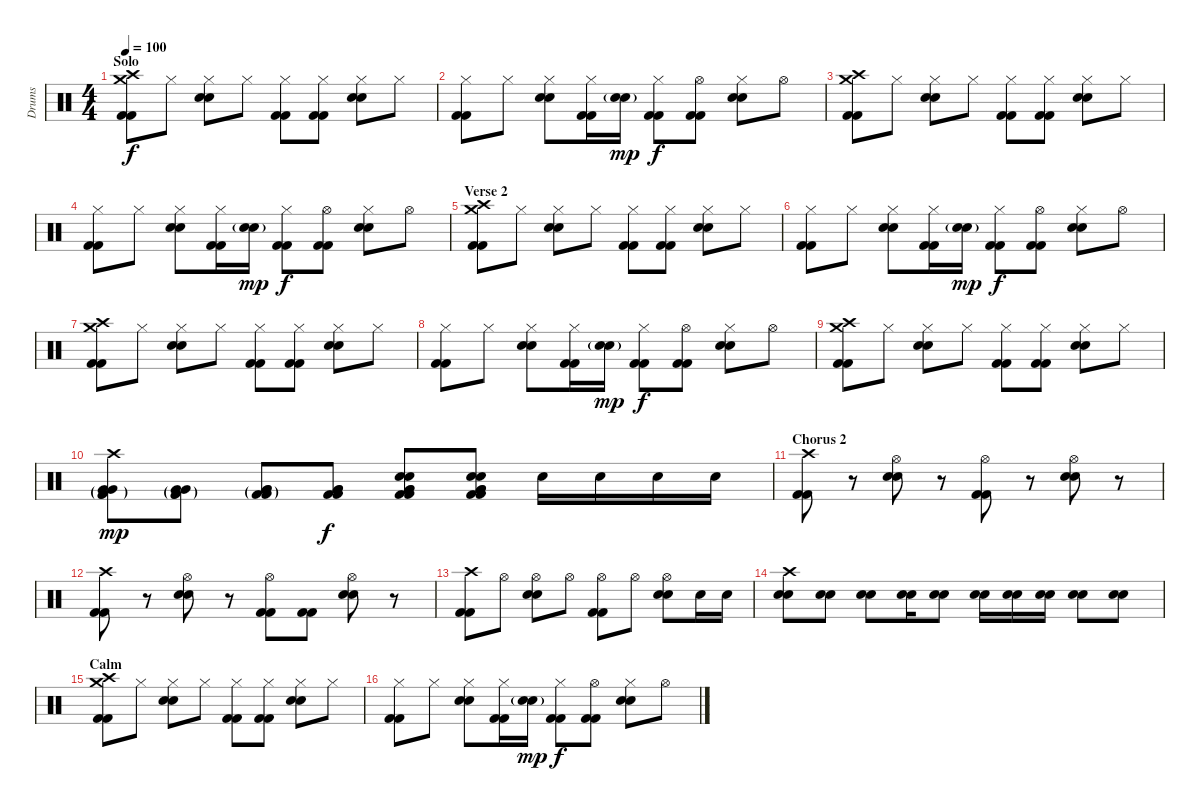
\track ("Drums" "Drums") {instrument percussion}
\staff {score}
\articulation defaults
\ts (4 4)
\section ("" "Solo")
\tempo 100
\clef neutral
\ks c
("Crash high (hit)" "Crash medium (hit)" "Kick (hit) 2" "Kick (hit) 2").8{dy f} "Hi-Hat (closed)".8 ("Hi-Hat (closed)" "Electric Snare (hit)" "Electric Snare (hit)").8 "Hi-Hat (closed)".8 ("Hi-Hat (closed)" "Kick (hit) 2" "Kick (hit) 2").8 ("Hi-Hat (closed)" "Kick (hit) 2" "Kick (hit) 2").8 ("Hi-Hat (closed)" "Electric Snare (hit)" "Electric Snare (hit)").8 "Hi-Hat (closed)".8 |
("Hi-Hat (closed)" "Kick (hit) 2" "Kick (hit) 2").8 "Hi-Hat (closed)".8 ("Hi-Hat (closed)" "Electric Snare (hit)" "Electric Snare (hit)").8 ("Hi-Hat (closed)" "Kick (hit) 2" "Kick (hit) 2").16 ("Electric Snare (hit)"{g} "Electric Snare (hit)"{g}).16{dy mp} ("Hi-Hat (closed)" "Kick (hit) 2" "Kick (hit) 2").8{dy f} ("Hi-Hat (open)" "Kick (hit) 2" "Kick (hit) 2").8 ("Hi-Hat (closed)" "Electric Snare (hit)" "Electric Snare (hit)").8 "Hi-Hat (open)".8 |
("Crash high (hit)" "Crash medium (hit)" "Kick (hit) 2" "Kick (hit) 2").8 "Hi-Hat (closed)".8 ("Hi-Hat (closed)" "Electric Snare (hit)" "Electric Snare (hit)").8 "Hi-Hat (closed)".8 ("Hi-Hat (closed)" "Kick (hit) 2" "Kick (hit) 2").8 ("Hi-Hat (closed)" "Kick (hit) 2" "Kick (hit) 2").8 ("Hi-Hat (closed)" "Electric Snare (hit)" "Electric Snare (hit)").8 "Hi-Hat (closed)".8 |
("Hi-Hat (closed)" "Kick (hit) 2" "Kick (hit) 2").8 "Hi-Hat (closed)".8 ("Hi-Hat (closed)" "Electric Snare (hit)" "Electric Snare (hit)").8 ("Hi-Hat (closed)" "Kick (hit) 2" "Kick (hit) 2").16 ("Electric Snare (hit)"{g} "Electric Snare (hit)"{g}).16{dy mp} ("Hi-Hat (closed)" "Kick (hit) 2" "Kick (hit) 2").8{dy f} ("Hi-Hat (open)" "Kick (hit) 2" "Kick (hit) 2").8 ("Hi-Hat (closed)" "Electric Snare (hit)" "Electric Snare (hit)").8 "Hi-Hat (open)".8 |
\section ("" "Verse 2")
("Crash high (hit)" "Crash medium (hit)" "Kick (hit) 2" "Kick (hit) 2").8 "Hi-Hat (closed)".8 ("Hi-Hat (closed)" "Electric Snare (hit)" "Electric Snare (hit)").8 "Hi-Hat (closed)".8 ("Hi-Hat (closed)" "Kick (hit) 2" "Kick (hit) 2").8 ("Hi-Hat (closed)" "Kick (hit) 2" "Kick (hit) 2").8 ("Hi-Hat (closed)" "Electric Snare (hit)" "Electric Snare (hit)").8 "Hi-Hat (closed)".8 |
("Hi-Hat (closed)" "Kick (hit) 2" "Kick (hit) 2").8 "Hi-Hat (closed)".8 ("Hi-Hat (closed)" "Electric Snare (hit)" "Electric Snare (hit)").8 ("Hi-Hat (closed)" "Kick (hit) 2" "Kick (hit) 2").16 ("Electric Snare (hit)"{g} "Electric Snare (hit)"{g}).16{dy mp} ("Hi-Hat (closed)" "Kick (hit) 2" "Kick (hit) 2").8{dy f} ("Hi-Hat (open)" "Kick (hit) 2" "Kick (hit) 2").8 ("Hi-Hat (closed)" "Electric Snare (hit)" "Electric Snare (hit)").8 "Hi-Hat (open)".8 |
("Crash high (hit)" "Crash medium (hit)" "Kick (hit) 2" "Kick (hit) 2").8 "Hi-Hat (closed)".8 ("Hi-Hat (closed)" "Electric Snare (hit)" "Electric Snare (hit)").8 "Hi-Hat (closed)".8 ("Hi-Hat (closed)" "Kick (hit) 2" "Kick (hit) 2").8 ("Hi-Hat (closed)" "Kick (hit) 2" "Kick (hit) 2").8 ("Hi-Hat (closed)" "Electric Snare (hit)" "Electric Snare (hit)").8 "Hi-Hat (closed)".8 |
("Hi-Hat (closed)" "Kick (hit) 2" "Kick (hit) 2").8 "Hi-Hat (closed)".8 ("Hi-Hat (closed)" "Electric Snare (hit)" "Electric Snare (hit)").8 ("Hi-Hat (closed)" "Kick (hit) 2" "Kick (hit) 2").16 ("Electric Snare (hit)"{g} "Electric Snare (hit)"{g}).16{dy mp} ("Hi-Hat (closed)" "Kick (hit) 2" "Kick (hit) 2").8{dy f} ("Hi-Hat (open)" "Kick (hit) 2" "Kick (hit) 2").8 ("Hi-Hat (closed)" "Electric Snare (hit)" "Electric Snare (hit)").8 "Hi-Hat (open)".8 |
("Crash high (hit)" "Crash medium (hit)" "Kick (hit) 2" "Kick (hit) 2").8 "Hi-Hat (closed)".8 ("Hi-Hat (closed)" "Electric Snare (hit)" "Electric Snare (hit)").8 "Hi-Hat (closed)".8 ("Hi-Hat (closed)" "Kick (hit) 2" "Kick (hit) 2").8 ("Hi-Hat (closed)" "Kick (hit) 2" "Kick (hit) 2").8 ("Hi-Hat (closed)" "Electric Snare (hit)" "Electric Snare (hit)").8 "Hi-Hat (closed)".8 |
("Crash high (hit)" "Very Low Tom (hit)"{g} "Very Low Tom (hit)"{g} "Kick (hit) 2"{g} "Kick (hit) 2"{g}).8{dy mp} ("Very Low Tom (hit)"{g} "Very Low Tom (hit)"{g} "Kick (hit) 2"{g} "Kick (hit) 2"{g}).8 ("Very Low Tom (hit)"{g} "Very Low Tom (hit)"{g} "Kick (hit) 2"{g} "Kick (hit) 2"{g}).8 ("Very Low Tom (hit)" "Very Low Tom (hit)" "Kick (hit) 2" "Kick (hit) 2").8{dy f} ("Electric Snare (hit)" "Electric Snare (hit)" "Very Low Tom (hit)" "Very Low Tom (hit)" "Kick (hit) 2" "Kick (hit) 2").8 ("Electric Snare (hit)" "Electric Snare (hit)" "Very Low Tom (hit)" "Very Low Tom (hit)" "Kick (hit) 2" "Kick (hit) 2").8 "Electric Snare (hit)".16 "Electric Snare (hit)".16 "Electric Snare (hit)".16 "Electric Snare (hit)".16 |
\section ("" "Chorus 2")
("Crash high (hit)" "Kick (hit) 2" "Kick (hit) 2").8 r.8 ("Hi-Hat (open)" "Electric Snare (hit)" "Electric Snare (hit)").8 r.8 ("Hi-Hat (open)" "Kick (hit) 2" "Kick (hit) 2").8 r.8 ("Hi-Hat (open)" "Electric Snare (hit)" "Electric Snare (hit)").8 r.8 |
("Crash high (hit)" "Kick (hit) 2" "Kick (hit) 2").8 r.8 ("Hi-Hat (open)" "Electric Snare (hit)" "Electric Snare (hit)").8 r.8 ("Hi-Hat (open)" "Kick (hit) 2" "Kick (hit) 2").8 ("Kick (hit) 2" "Kick (hit) 2").8 ("Hi-Hat (open)" "Electric Snare (hit)" "Electric Snare (hit)").8 r.8 |
("Crash high (hit)" "Kick (hit) 2" "Kick (hit) 2").8 "Hi-Hat (open)".8 ("Hi-Hat (open)" "Electric Snare (hit)" "Electric Snare (hit)").8 "Hi-Hat (open)".8 ("Hi-Hat (open)" "Kick (hit) 2" "Kick (hit) 2").8 "Hi-Hat (open)".8 ("Hi-Hat (open)" "Electric Snare (hit)" "Electric Snare (hit)").8 "Electric Snare (hit)".16 "Electric Snare (hit)".16 |
("Crash high (hit)" "Electric Snare (hit)" "Electric Snare (hit)").8 ("Electric Snare (hit)" "Electric Snare (hit)").8 ("Electric Snare (hit)" "Electric Snare (hit)").8 ("Electric Snare (hit)" "Electric Snare (hit)").16 ("Electric Snare (hit)" "Electric Snare (hit)").8 ("Electric Snare (hit)" "Electric Snare (hit)").16 ("Electric Snare (hit)" "Electric Snare (hit)").16 ("Electric Snare (hit)" "Electric Snare (hit)").16 ("Electric Snare (hit)" "Electric Snare (hit)").8 ("Electric Snare (hit)" "Electric Snare (hit)").8 |
\section ("" "Calm")
("Crash high (hit)" "Crash medium (hit)" "Kick (hit) 2" "Kick (hit) 2").8 "Hi-Hat (closed)".8 ("Hi-Hat (closed)" "Electric Snare (hit)" "Electric Snare (hit)").8 "Hi-Hat (closed)".8 ("Hi-Hat (closed)" "Kick (hit) 2" "Kick (hit) 2").8 ("Hi-Hat (closed)" "Kick (hit) 2" "Kick (hit) 2").8 ("Hi-Hat (closed)" "Electric Snare (hit)" "Electric Snare (hit)").8 "Hi-Hat (closed)".8 |
("Hi-Hat (closed)" "Kick (hit) 2" "Kick (hit) 2").8 "Hi-Hat (closed)".8 ("Hi-Hat (closed)" "Electric Snare (hit)" "Electric Snare (hit)").8 ("Hi-Hat (closed)" "Kick (hit) 2" "Kick (hit) 2").16 ("Electric Snare (hit)"{g} "Electric Snare (hit)"{g}).16{dy mp} ("Hi-Hat (closed)" "Kick (hit) 2" "Kick (hit) 2").8{dy f} ("Hi-Hat (open)" "Kick (hit) 2" "Kick (hit) 2").8 ("Hi-Hat (closed)" "Electric Snare (hit)" "Electric Snare (hit)").8 "Hi-Hat (open)".8
